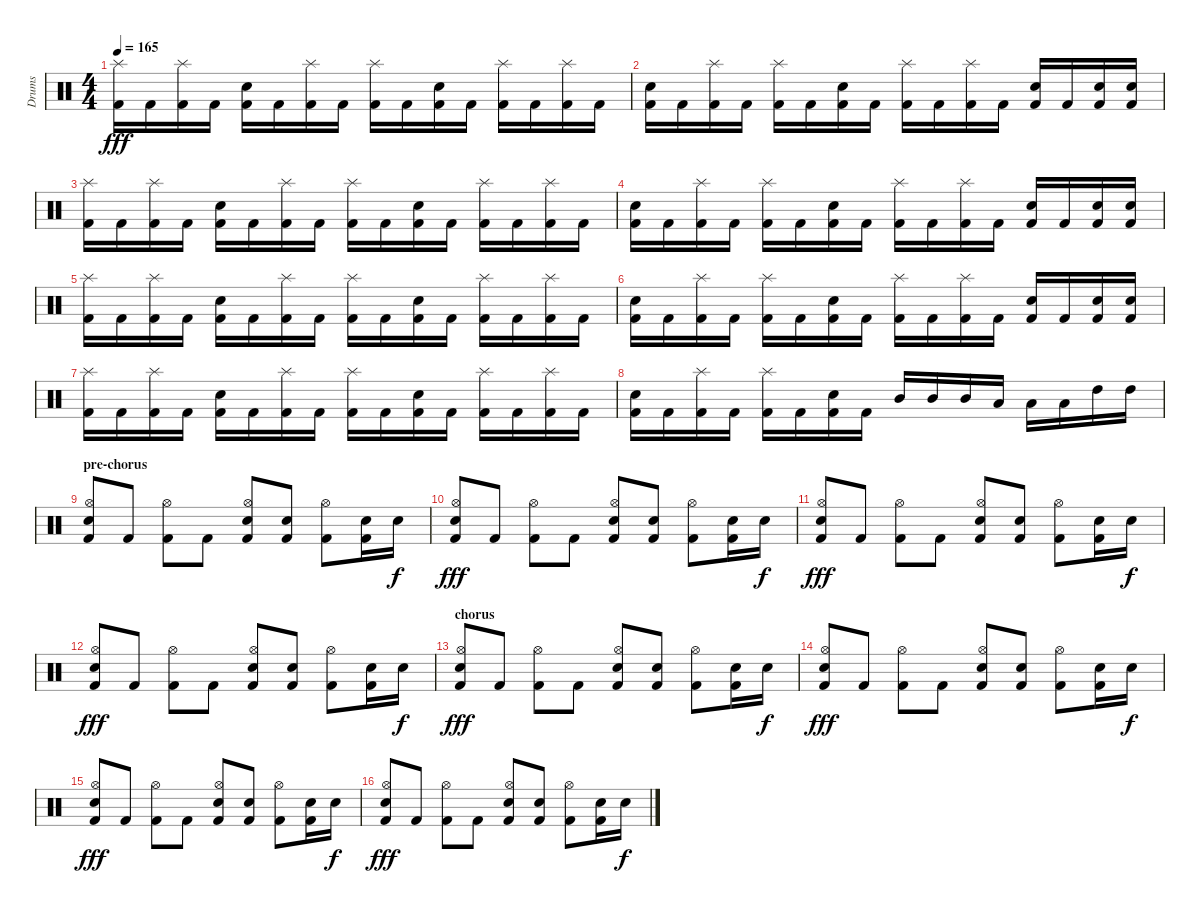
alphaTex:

\track ("Drums" "Drums") {instrument percussion}
\staff {score}
\articulation defaults
\ts (4 4)
\tempo 165
\clef neutral
\ks c
("Splash (hit)" "Kick (hit) 2").16{dy fff} "Kick (hit) 2".16 ("Splash (hit)" "Kick (hit) 2").16 "Kick (hit) 2".16 ("Snare (hit) 2" "Kick (hit) 2").16 "Kick (hit) 2".16 ("Splash (hit)" "Kick (hit) 2").16 "Kick (hit) 2".16 ("Splash (hit)" "Kick (hit) 2").16 "Kick (hit) 2".16 ("Snare (hit) 2" "Kick (hit) 2").16 "Kick (hit) 2".16 ("Splash (hit)" "Kick (hit) 2").16 "Kick (hit) 2".16 ("Splash (hit)" "Kick (hit) 2").16 "Kick (hit) 2".16 |
("Snare (hit) 2" "Kick (hit) 2").16 "Kick (hit) 2".16 ("Splash (hit)" "Kick (hit) 2").16 "Kick (hit) 2".16 ("Splash (hit)" "Kick (hit) 2").16 "Kick (hit) 2".16 ("Snare (hit) 2" "Kick (hit) 2").16 "Kick (hit) 2".16 ("Splash (hit)" "Kick (hit) 2").16 "Kick (hit) 2".16 ("Splash (hit)" "Kick (hit) 2").16 "Kick (hit) 2".16 ("Snare (hit) 2" "Kick (hit) 2").16 "Kick (hit) 2".16 ("Snare (hit) 2" "Kick (hit) 2").16 ("Snare (hit) 2" "Kick (hit) 2").16 |
("Splash (hit)" "Kick (hit) 2").16 "Kick (hit) 2".16 ("Splash (hit)" "Kick (hit) 2").16 "Kick (hit) 2".16 ("Snare (hit) 2" "Kick (hit) 2").16 "Kick (hit) 2".16 ("Splash (hit)" "Kick (hit) 2").16 "Kick (hit) 2".16 ("Splash (hit)" "Kick (hit) 2").16 "Kick (hit) 2".16 ("Snare (hit) 2" "Kick (hit) 2").16 "Kick (hit) 2".16 ("Splash (hit)" "Kick (hit) 2").16 "Kick (hit) 2".16 ("Splash (hit)" "Kick (hit) 2").16 "Kick (hit) 2".16 |
("Snare (hit) 2" "Kick (hit) 2").16 "Kick (hit) 2".16 ("Splash (hit)" "Kick (hit) 2").16 "Kick (hit) 2".16 ("Splash (hit)" "Kick (hit) 2").16 "Kick (hit) 2".16 ("Snare (hit) 2" "Kick (hit) 2").16 "Kick (hit) 2".16 ("Splash (hit)" "Kick (hit) 2").16 "Kick (hit) 2".16 ("Splash (hit)" "Kick (hit) 2").16 "Kick (hit) 2".16 ("Snare (hit) 2" "Kick (hit) 2").16 "Kick (hit) 2".16 ("Snare (hit) 2" "Kick (hit) 2").16 ("Snare (hit) 2" "Kick (hit) 2").16 |
("Splash (hit)" "Kick (hit) 2").16 "Kick (hit) 2".16 ("Splash (hit)" "Kick (hit) 2").16 "Kick (hit) 2".16 ("Snare (hit) 2" "Kick (hit) 2").16 "Kick (hit) 2".16 ("Splash (hit)" "Kick (hit) 2").16 "Kick (hit) 2".16 ("Splash (hit)" "Kick (hit) 2").16 "Kick (hit) 2".16 ("Snare (hit) 2" "Kick (hit) 2").16 "Kick (hit) 2".16 ("Splash (hit)" "Kick (hit) 2").16 "Kick (hit) 2".16 ("Splash (hit)" "Kick (hit) 2").16 "Kick (hit) 2".16 |
("Snare (hit) 2" "Kick (hit) 2").16 "Kick (hit) 2".16 ("Splash (hit)" "Kick (hit) 2").16 "Kick (hit) 2".16 ("Splash (hit)" "Kick (hit) 2").16 "Kick (hit) 2".16 ("Snare (hit) 2" "Kick (hit) 2").16 "Kick (hit) 2".16 ("Splash (hit)" "Kick (hit) 2").16 "Kick (hit) 2".16 ("Splash (hit)" "Kick (hit) 2").16 "Kick (hit) 2".16 ("Snare (hit) 2" "Kick (hit) 2").16 "Kick (hit) 2".16 ("Snare (hit) 2" "Kick (hit) 2").16 ("Snare (hit) 2" "Kick (hit) 2").16 |
("Splash (hit)" "Kick (hit) 2").16 "Kick (hit) 2".16 ("Splash (hit)" "Kick (hit) 2").16 "Kick (hit) 2".16 ("Snare (hit) 2" "Kick (hit) 2").16 "Kick (hit) 2".16 ("Splash (hit)" "Kick (hit) 2").16 "Kick (hit) 2".16 ("Splash (hit)" "Kick (hit) 2").16 "Kick (hit) 2".16 ("Snare (hit) 2" "Kick (hit) 2").16 "Kick (hit) 2".16 ("Splash (hit)" "Kick (hit) 2").16 "Kick (hit) 2".16 ("Splash (hit)" "Kick (hit) 2").16 "Kick (hit) 2".16 |
("Snare (hit) 2" "Kick (hit) 2").16 "Kick (hit) 2".16 ("Splash (hit)" "Kick (hit) 2").16 "Kick (hit) 2".16 ("Splash (hit)" "Kick (hit) 2").16 "Kick (hit) 2".16 ("Snare (hit) 2" "Kick (hit) 2").16 "Kick (hit) 2".16 "Mid Tom (hit)".16 "Mid Tom (hit)".16 "Mid Tom (hit)".16 "Low Tom (hit)".16 "Low Tom (hit)".16 "Low Tom (hit)".16 "High Tom (hit)".16 "High Tom (hit)".16 |
\section ("" "pre-chorus")
("Hi-Hat (open)" "Electric Snare (hit)" "Kick (hit) 2").8 "Kick (hit) 2".8 ("Hi-Hat (open)" "Kick (hit) 2").8 "Kick (hit) 2".8 ("Hi-Hat (open)" "Electric Snare (hit)" "Kick (hit) 2").8 ("Electric Snare (hit)" "Kick (hit) 2").8 ("Hi-Hat (open)" "Kick (hit) 2").8 ("Electric Snare (hit)" "Kick (hit) 2").16 "Electric Snare (hit)".16{dy f} |
("Hi-Hat (open)" "Electric Snare (hit)" "Kick (hit) 2").8{dy fff} "Kick (hit) 2".8 ("Hi-Hat (open)" "Kick (hit) 2").8 "Kick (hit) 2".8 ("Hi-Hat (open)" "Electric Snare (hit)" "Kick (hit) 2").8 ("Electric Snare (hit)" "Kick (hit) 2").8 ("Hi-Hat (open)" "Kick (hit) 2").8 ("Electric Snare (hit)" "Kick (hit) 2").16 "Electric Snare (hit)".16{dy f} |
("Hi-Hat (open)" "Electric Snare (hit)" "Kick (hit) 2").8{dy fff} "Kick (hit) 2".8 ("Hi-Hat (open)" "Kick (hit) 2").8 "Kick (hit) 2".8 ("Hi-Hat (open)" "Electric Snare (hit)" "Kick (hit) 2").8 ("Electric Snare (hit)" "Kick (hit) 2").8 ("Hi-Hat (open)" "Kick (hit) 2").8 ("Electric Snare (hit)" "Kick (hit) 2").16 "Electric Snare (hit)".16{dy f} |
("Hi-Hat (open)" "Electric Snare (hit)" "Kick (hit) 2").8{dy fff} "Kick (hit) 2".8 ("Hi-Hat (open)" "Kick (hit) 2").8 "Kick (hit) 2".8 ("Hi-Hat (open)" "Electric Snare (hit)" "Kick (hit) 2").8 ("Electric Snare (hit)" "Kick (hit) 2").8 ("Hi-Hat (open)" "Kick (hit) 2").8 ("Electric Snare (hit)" "Kick (hit) 2").16 "Electric Snare (hit)".16{dy f} |
\section ("" "chorus")
("Hi-Hat (open)" "Electric Snare (hit)" "Kick (hit) 2").8{dy fff} "Kick (hit) 2".8 ("Hi-Hat (open)" "Kick (hit) 2").8 "Kick (hit) 2".8 ("Hi-Hat (open)" "Electric Snare (hit)" "Kick (hit) 2").8 ("Electric Snare (hit)" "Kick (hit) 2").8 ("Hi-Hat (open)" "Kick (hit) 2").8 ("Electric Snare (hit)" "Kick (hit) 2").16 "Electric Snare (hit)".16{dy f} |
("Hi-Hat (open)" "Electric Snare (hit)" "Kick (hit) 2").8{dy fff} "Kick (hit) 2".8 ("Hi-Hat (open)" "Kick (hit) 2").8 "Kick (hit) 2".8 ("Hi-Hat (open)" "Electric Snare (hit)" "Kick (hit) 2").8 ("Electric Snare (hit)" "Kick (hit) 2").8 ("Hi-Hat (open)" "Kick (hit) 2").8 ("Electric Snare (hit)" "Kick (hit) 2").16 "Electric Snare (hit)".16{dy f} |
("Hi-Hat (open)" "Electric Snare (hit)" "Kick (hit) 2").8{dy fff} "Kick (hit) 2".8 ("Hi-Hat (open)" "Kick (hit) 2").8 "Kick (hit) 2".8 ("Hi-Hat (open)" "Electric Snare (hit)" "Kick (hit) 2").8 ("Electric Snare (hit)" "Kick (hit) 2").8 ("Hi-Hat (open)" "Kick (hit) 2").8 ("Electric Snare (hit)" "Kick (hit) 2").16 "Electric Snare (hit)".16{dy f} |
("Hi-Hat (open)" "Electric Snare (hit)" "Kick (hit) 2").8{dy fff} "Kick (hit) 2".8 ("Hi-Hat (open)" "Kick (hit) 2").8 "Kick (hit) 2".8 ("Hi-Hat (open)" "Electric Snare (hit)" "Kick (hit) 2").8 ("Electric Snare (hit)" "Kick (hit) 2").8 ("Hi-Hat (open)" "Kick (hit) 2").8 ("Electric Snare (hit)" "Kick (hit) 2").16 "Electric Snare (hit)".16{dy f}
